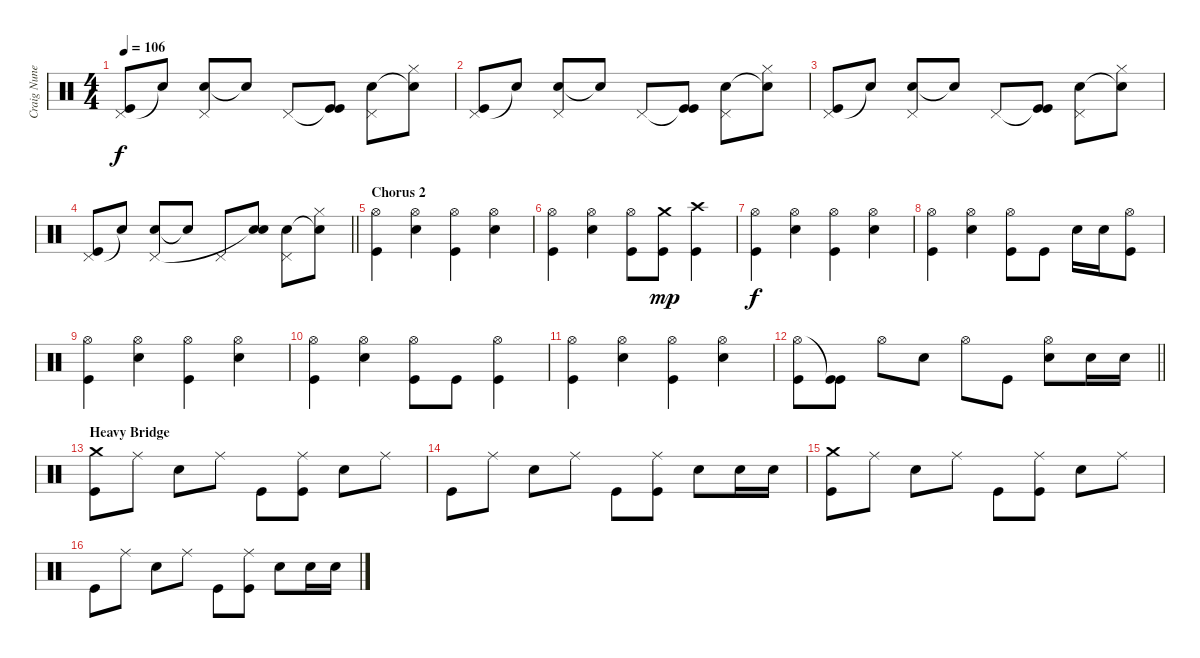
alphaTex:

\track ("Craig Nunemacher" "Craig Nune") {instrument percussion}
\staff {score}
\articulation defaults
\ts (4 4)
\tempo 106
\clef neutral
\ks c
("Pedal Hi-Hat (hit)" "Kick (hit)").8{dy f} "Snare (hit)"{t}.8 ("Snare (hit) 2" "Pedal Hi-Hat (hit)").8 "Snare (hit)"{t}.8 "Pedal Hi-Hat (hit)".8 ("Kick (hit)"{t} "Kick (hit)").8 ("Snare (hit) 2" "Pedal Hi-Hat (hit)").8 ("Snare (hit)"{t} "Hi-Hat (closed)").8 |
("Pedal Hi-Hat (hit)" "Kick (hit)").8 "Snare (hit)"{t}.8 ("Snare (hit) 2" "Pedal Hi-Hat (hit)").8 "Snare (hit)"{t}.8 "Pedal Hi-Hat (hit)".8 ("Kick (hit)"{t} "Kick (hit)").8 ("Snare (hit) 2" "Pedal Hi-Hat (hit)").8 ("Snare (hit)"{t} "Hi-Hat (closed)").8 |
("Pedal Hi-Hat (hit)" "Kick (hit)").8 "Snare (hit)"{t}.8 ("Snare (hit) 2" "Pedal Hi-Hat (hit)").8 "Snare (hit)"{t}.8 "Pedal Hi-Hat (hit)".8 ("Kick (hit)"{t} "Kick (hit)").8 ("Snare (hit) 2" "Pedal Hi-Hat (hit)").8 ("Snare (hit)"{t} "Hi-Hat (closed)").8 |
\barLineRight lightlight
("Pedal Hi-Hat (hit)" "Kick (hit)").8 "Snare (hit)"{t}.8 ("Electric Snare (hit)" "Pedal Hi-Hat (hit)").8 "Snare (hit)"{t}.8 "Pedal Hi-Hat (hit)".8 ("Snare (hit) 2" "Snare (hit)"{t}).8 ("Snare (hit) 2" "Pedal Hi-Hat (hit)").8 ("Snare (hit)"{t} "Hi-Hat (closed)").8 |
\section ("" "Chorus 2")
("Hi-Hat (open)" "Kick (hit)").4 ("Snare (hit) 2" "Hi-Hat (open)").4 ("Hi-Hat (open)" "Kick (hit)").4 ("Snare (hit) 2" "Hi-Hat (open)").4 |
("Hi-Hat (open)" "Kick (hit)").4 ("Snare (hit) 2" "Hi-Hat (open)").4 ("Hi-Hat (open)" "Kick (hit)").8 ("Crash medium (hit)" "Kick (hit)").8{dy mp} ("Crash high (hit)" "Kick (hit)").4 |
("Hi-Hat (open)" "Kick (hit)").4{dy f} ("Snare (hit) 2" "Hi-Hat (open)").4 ("Hi-Hat (open)" "Kick (hit)").4 ("Snare (hit) 2" "Hi-Hat (open)").4 |
("Hi-Hat (open)" "Kick (hit)").4 ("Snare (hit) 2" "Hi-Hat (open)").4 ("Hi-Hat (open)" "Kick (hit)").8 "Kick (hit)".8 "Snare (hit) 2".16 "Snare (hit) 2".16 ("Hi-Hat (open)" "Kick (hit)").8 |
("Hi-Hat (open)" "Kick (hit)").4 ("Snare (hit) 2" "Hi-Hat (open)").4 ("Hi-Hat (open)" "Kick (hit)").4 ("Snare (hit) 2" "Hi-Hat (open)").4 |
("Hi-Hat (open)" "Kick (hit)").4 ("Snare (hit) 2" "Hi-Hat (open)").4 ("Hi-Hat (open)" "Kick (hit)").8 "Kick (hit)".8 ("Hi-Hat (open)" "Kick (hit)").4 |
("Hi-Hat (open)" "Kick (hit)").4 ("Snare (hit) 2" "Hi-Hat (open)").4 ("Hi-Hat (open)" "Kick (hit)").4 ("Snare (hit) 2" "Hi-Hat (open)").4 |
\barLineRight lightlight
("Hi-Hat (open)" "Kick (hit)").8 ("Kick (hit)"{t} "Kick (hit)").8 "Hi-Hat (open)".8 "Snare (hit) 2".8 "Hi-Hat (open)".8 "Kick (hit)".8 ("Snare (hit) 2" "Hi-Hat (open)").8 "Snare (hit) 2".16 "Snare (hit) 2".16 |
\section ("" "Heavy Bridge")
("Crash medium (hit)" "Kick (hit)").8 "Ride (middle)".8 "Snare (hit) 2".8 "Ride (middle)".8 "Kick (hit)".8 ("Ride (middle)" "Kick (hit)").8 "Snare (hit) 2".8 "Ride (middle)".8 |
"Kick (hit)".8 "Ride (middle)".8 "Snare (hit) 2".8 "Ride (middle)".8 "Kick (hit)".8 ("Ride (middle)" "Kick (hit)").8 "Snare (hit) 2".8 "Snare (hit) 2".16 "Snare (hit) 2".16 |
("Crash medium (hit)" "Kick (hit)").8 "Ride (middle)".8 "Snare (hit) 2".8 "Ride (middle)".8 "Kick (hit)".8 ("Ride (middle)" "Kick (hit)").8 "Snare (hit) 2".8 "Ride (middle)".8 |
"Kick (hit)".8 "Ride (middle)".8 "Snare (hit) 2".8 "Ride (middle)".8 "Kick (hit)".8 ("Ride (middle)" "Kick (hit)").8 "Snare (hit) 2".8 "Snare (hit) 2".16 "Snare (hit) 2".16
